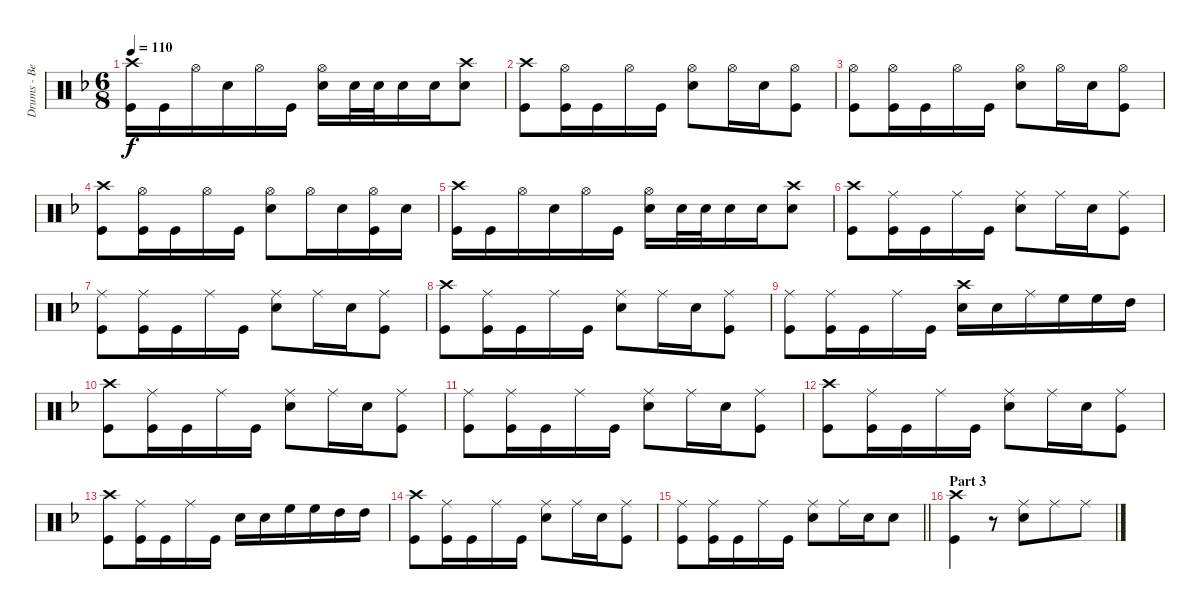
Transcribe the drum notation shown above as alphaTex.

\track ("Drums - Ben Johnston" "Drums - Be") {instrument percussion}
\staff {score}
\articulation defaults
\ts (6 8)
\tempo 110
\clef neutral
\ks dminor
("Crash high (hit)" "Kick (hit)").16{dy f} "Kick (hit)".16 "Hi-Hat (open)".16 "Snare (hit) 2".16 "Hi-Hat (open)".16 "Kick (hit)".16 ("Hi-Hat (open)" "Snare (hit) 2").16 "Snare (hit) 2".32 "Snare (hit) 2".32 "Snare (hit) 2".16 "Snare (hit) 2".16 ("Crash high (hit)" "Snare (hit) 2").8 |
("Crash high (hit)" "Kick (hit)").8 ("Hi-Hat (open)" "Kick (hit)").16 "Kick (hit)".16 "Hi-Hat (open)".16 "Kick (hit)".16 ("Hi-Hat (open)" "Snare (hit) 2").8 "Hi-Hat (open)".16 "Snare (hit) 2".16 ("Hi-Hat (open)" "Kick (hit)").8 |
("Hi-Hat (open)" "Kick (hit)").8 ("Hi-Hat (open)" "Kick (hit)").16 "Kick (hit)".16 "Hi-Hat (open)".16 "Kick (hit)".16 ("Hi-Hat (open)" "Snare (hit) 2").8 "Hi-Hat (open)".16 "Snare (hit) 2".16 ("Hi-Hat (open)" "Kick (hit)").8 |
("Crash high (hit)" "Kick (hit)").8 ("Hi-Hat (open)" "Kick (hit)").16 "Kick (hit)".16 "Hi-Hat (open)".16 "Kick (hit)".16 ("Hi-Hat (open)" "Snare (hit) 2").8 "Hi-Hat (open)".16 "Snare (hit) 2".16 ("Hi-Hat (open)" "Kick (hit)").16 "Snare (hit) 2".16 |
("Crash high (hit)" "Kick (hit)").16 "Kick (hit)".16 "Hi-Hat (open)".16 "Snare (hit) 2".16 "Hi-Hat (open)".16 "Kick (hit)".16 ("Hi-Hat (open)" "Snare (hit) 2").16 "Snare (hit) 2".32 "Snare (hit) 2".32 "Snare (hit) 2".16 "Snare (hit) 2".16 ("Crash high (hit)" "Snare (hit) 2").8 |
("Crash high (hit)" "Kick (hit)").8 ("Ride (middle)" "Kick (hit)").16 "Kick (hit)".16 "Ride (middle)".16 "Kick (hit)".16 ("Ride (middle)" "Snare (hit) 2").8 "Ride (middle)".16 "Snare (hit) 2".16 ("Ride (middle)" "Kick (hit)").8 |
("Ride (middle)" "Kick (hit)").8 ("Ride (middle)" "Kick (hit)").16 "Kick (hit)".16 "Ride (middle)".16 "Kick (hit)".16 ("Ride (middle)" "Snare (hit) 2").8 "Ride (middle)".16 "Snare (hit) 2".16 ("Ride (middle)" "Kick (hit)").8 |
("Crash high (hit)" "Kick (hit)").8 ("Ride (middle)" "Kick (hit)").16 "Kick (hit)".16 "Ride (middle)".16 "Kick (hit)".16 ("Ride (middle)" "Snare (hit) 2").8 "Ride (middle)".16 "Snare (hit) 2".16 ("Ride (middle)" "Kick (hit)").8 |
("Ride (middle)" "Kick (hit)").8 ("Ride (middle)" "Kick (hit)").16 "Kick (hit)".16 "Ride (middle)".16 "Kick (hit)".16 ("Crash high (hit)" "Snare (hit) 2").16 "Snare (hit) 2".16 "Ride (middle)".16 "High Floor Tom (hit)".16 "High Floor Tom (hit)".16 "High Tom (hit)".16 |
("Crash high (hit)" "Kick (hit)").8 ("Ride (middle)" "Kick (hit)").16 "Kick (hit)".16 "Ride (middle)".16 "Kick (hit)".16 ("Ride (middle)" "Snare (hit) 2").8 "Ride (middle)".16 "Snare (hit) 2".16 ("Ride (middle)" "Kick (hit)").8 |
("Ride (middle)" "Kick (hit)").8 ("Ride (middle)" "Kick (hit)").16 "Kick (hit)".16 "Ride (middle)".16 "Kick (hit)".16 ("Ride (middle)" "Snare (hit) 2").8 "Ride (middle)".16 "Snare (hit) 2".16 ("Ride (middle)" "Kick (hit)").8 |
("Crash high (hit)" "Kick (hit)").8 ("Ride (middle)" "Kick (hit)").16 "Kick (hit)".16 "Ride (middle)".16 "Kick (hit)".16 ("Ride (middle)" "Snare (hit) 2").8 "Ride (middle)".16 "Snare (hit) 2".16 ("Ride (middle)" "Kick (hit)").8 |
("Crash high (hit)" "Kick (hit)").8 ("Ride (middle)" "Kick (hit)").16 "Kick (hit)".16 "Ride (middle)".16 "Kick (hit)".16 "Snare (hit) 2".16 "Snare (hit) 2".16 "High Floor Tom (hit)".16 "High Floor Tom (hit)".16 "High Tom (hit)".16 "High Tom (hit)".16 |
("Crash high (hit)" "Kick (hit)").8 ("Ride (middle)" "Kick (hit)").16 "Kick (hit)".16 "Ride (middle)".16 "Kick (hit)".16 ("Ride (middle)" "Snare (hit) 2").8 "Ride (middle)".16 "Snare (hit) 2".16 ("Ride (middle)" "Kick (hit)").8 |
\barLineRight lightlight
("Ride (middle)" "Kick (hit)").8 ("Ride (middle)" "Kick (hit)").16 "Kick (hit)".16 "Ride (middle)".16 "Kick (hit)".16 ("Ride (middle)" "Snare (hit) 2").8 "Ride (middle)".16 "Snare (hit) 2".16 "Snare (hit) 2".8 |
\section ("" "Part 3")
("Crash high (hit)" "Kick (hit)").4 r.8 ("Ride (middle)" "Snare (hit) 2").8{volume 12} "Ride (middle)".8 "Ride (middle)".8
